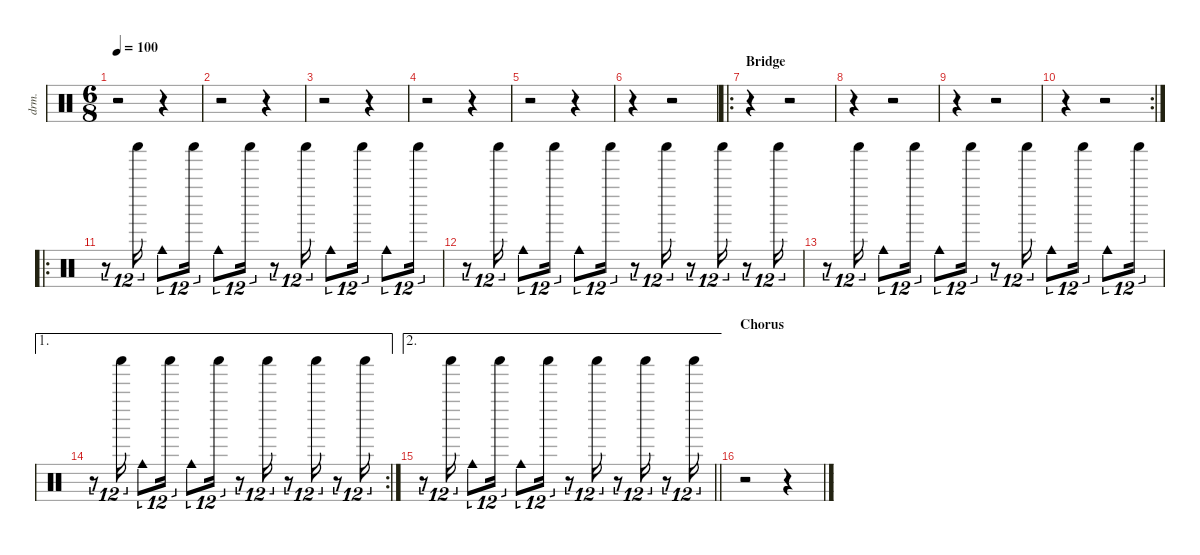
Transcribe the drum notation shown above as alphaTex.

\defaultSystemsLayout 4
\hideDynamics
\bracketExtendMode nobrackets
\track ("Percussions - Chad Smith" "drm.") {instrument percussion}
\staff {score}
\articulation defaults
\ts (6 8)
\tempo 100
\clef neutral
\ks c
r.2{dy f} r.4 |
r.2 r.4 |
r.2 r.4 |
r.2 r.4 |
r.2 r.4 |
r.4 r.2 |
\ro
\section ("" "Bridge")
r.4 r.2 |
r.4 r.2 |
r.4 r.2 |
\rc 2
r.4 r.2 |
\ro
r.8{tu (12 8)} "Shaker (hit)".16{tu (12 8)} "Cowbell medium (hit)".8{tu (12 8)} "Shaker (hit)".16{tu (12 8)} "Cowbell medium (hit)".8{tu (12 8)} "Shaker (hit)".16{tu (12 8)} r.8{tu (12 8)} "Shaker (hit)".16{tu (12 8)} "Cowbell medium (hit)".8{tu (12 8)} "Shaker (hit)".16{tu (12 8)} "Cowbell medium (hit)".8{tu (12 8)} "Shaker (hit)".16{tu (12 8)} |
r.8{tu (12 8)} "Shaker (hit)".16{tu (12 8)} "Cowbell medium (hit)".8{tu (12 8)} "Shaker (hit)".16{tu (12 8)} "Cowbell medium (hit)".8{tu (12 8)} "Shaker (hit)".16{tu (12 8)} r.8{tu (12 8)} "Shaker (hit)".16{tu (12 8)} r.8{tu (12 8)} "Shaker (hit)".16{tu (12 8)} r.8{tu (12 8)} "Shaker (hit)".16{tu (12 8)} |
r.8{tu (12 8)} "Shaker (hit)".16{tu (12 8)} "Cowbell medium (hit)".8{tu (12 8)} "Shaker (hit)".16{tu (12 8)} "Cowbell medium (hit)".8{tu (12 8)} "Shaker (hit)".16{tu (12 8)} r.8{tu (12 8)} "Shaker (hit)".16{tu (12 8)} "Cowbell medium (hit)".8{tu (12 8)} "Shaker (hit)".16{tu (12 8)} "Cowbell medium (hit)".8{tu (12 8)} "Shaker (hit)".16{tu (12 8)} |
\ae 1
\rc 2
r.8{tu (12 8)} "Shaker (hit)".16{tu (12 8)} "Cowbell medium (hit)".8{tu (12 8)} "Shaker (hit)".16{tu (12 8)} "Cowbell medium (hit)".8{tu (12 8)} "Shaker (hit)".16{tu (12 8)} r.8{tu (12 8)} "Shaker (hit)".16{tu (12 8)} r.8{tu (12 8)} "Shaker (hit)".16{tu (12 8)} r.8{tu (12 8)} "Shaker (hit)".16{tu (12 8)} |
\ae 2
\barLineRight lightlight
r.8{tu (12 8)} "Shaker (hit)".16{tu (12 8)} "Cowbell medium (hit)".8{tu (12 8)} "Shaker (hit)".16{tu (12 8)} "Cowbell medium (hit)".8{tu (12 8)} "Shaker (hit)".16{tu (12 8)} r.8{tu (12 8)} "Shaker (hit)".16{tu (12 8)} r.8{tu (12 8)} "Shaker (hit)".16{tu (12 8)} r.8{tu (12 8)} "Shaker (hit)".16{tu (12 8)} |
\section ("" "Chorus")
r.2 r.4
